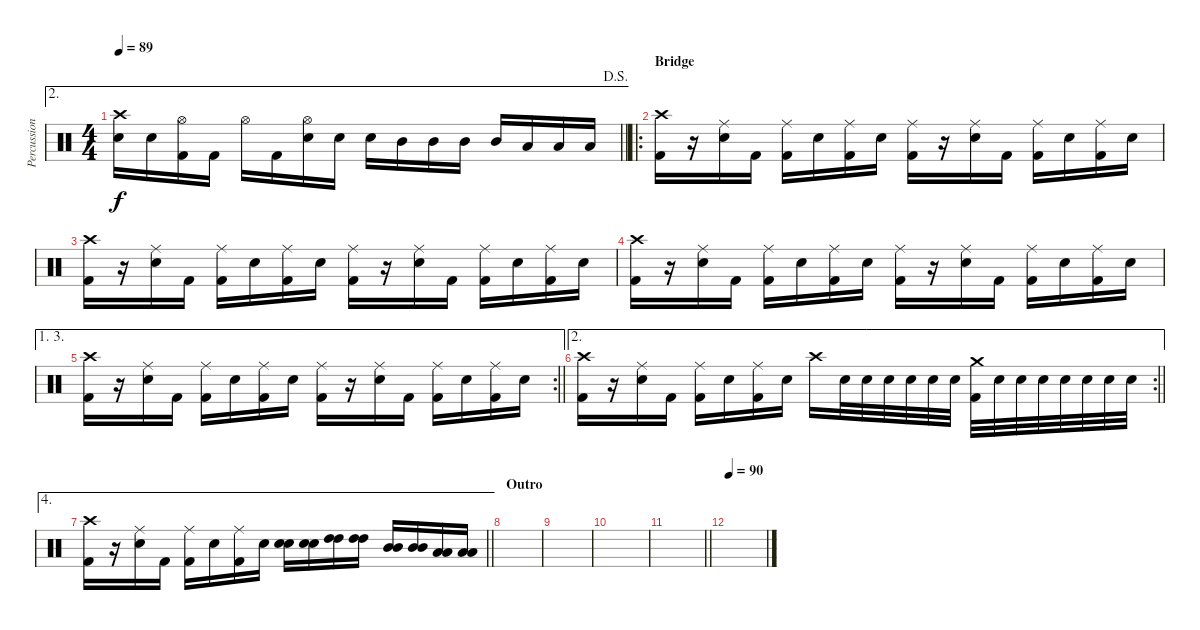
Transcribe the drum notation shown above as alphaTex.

\track ("Percussion" "Percussion") {instrument percussion}
\staff {score}
\articulation defaults
\ae 2
\ts (4 4)
\jump dalsegno
\tempo 89
\clef neutral
\barLineRight lightlight
\ks c
("Crash high (hit)" "Electric Snare (hit)").16{dy f} "Electric Snare (hit)".16 ("Hi-Hat (open)" "Kick (hit) 2").16 "Kick (hit) 2".16 "Hi-Hat (open)".16 "Kick (hit) 2".16 ("Hi-Hat (open)" "Electric Snare (hit)").16 "Electric Snare (hit)".16 "Electric Snare (hit)".16 "Mid Tom (hit)".16 "Mid Tom (hit)".16 "Mid Tom (hit)".16 "Mid Tom (hit)".16 "Low Tom (hit)".16 "Low Tom (hit)".16 "Low Tom (hit)".16 |
\ro
\section ("" "Bridge")
("Crash high (hit)" "Kick (hit) 2").16 r.16 ("Ride (middle)" "Electric Snare (hit)").16 "Kick (hit) 2".16 ("Ride (middle)" "Kick (hit) 2").16 "Electric Snare (hit)".16 ("Ride (middle)" "Kick (hit) 2").16 "Electric Snare (hit)".16 ("Ride (middle)" "Kick (hit) 2").16 r.16 ("Ride (middle)" "Electric Snare (hit)").16 "Kick (hit) 2".16 ("Ride (middle)" "Kick (hit) 2").16 "Electric Snare (hit)".16 ("Ride (middle)" "Kick (hit) 2").16 "Electric Snare (hit)".16 |
("Crash high (hit)" "Kick (hit) 2").16 r.16 ("Ride (middle)" "Electric Snare (hit)").16 "Kick (hit) 2".16 ("Ride (middle)" "Kick (hit) 2").16 "Electric Snare (hit)".16 ("Ride (middle)" "Kick (hit) 2").16 "Electric Snare (hit)".16 ("Ride (middle)" "Kick (hit) 2").16 r.16 ("Ride (middle)" "Electric Snare (hit)").16 "Kick (hit) 2".16 ("Ride (middle)" "Kick (hit) 2").16 "Electric Snare (hit)".16 ("Ride (middle)" "Kick (hit) 2").16 "Electric Snare (hit)".16 |
("Crash high (hit)" "Kick (hit) 2").16 r.16 ("Ride (middle)" "Electric Snare (hit)").16 "Kick (hit) 2".16 ("Ride (middle)" "Kick (hit) 2").16 "Electric Snare (hit)".16 ("Ride (middle)" "Kick (hit) 2").16 "Electric Snare (hit)".16 ("Ride (middle)" "Kick (hit) 2").16 r.16 ("Ride (middle)" "Electric Snare (hit)").16 "Kick (hit) 2".16 ("Ride (middle)" "Kick (hit) 2").16 "Electric Snare (hit)".16 ("Ride (middle)" "Kick (hit) 2").16 "Electric Snare (hit)".16 |
\ae (1 3)
\rc 2
\barLineRight lightlight
("Crash high (hit)" "Kick (hit) 2").16 r.16 ("Ride (middle)" "Electric Snare (hit)").16 "Kick (hit) 2".16 ("Ride (middle)" "Kick (hit) 2").16 "Electric Snare (hit)".16 ("Ride (middle)" "Kick (hit) 2").16 "Electric Snare (hit)".16 ("Ride (middle)" "Kick (hit) 2").16 r.16 ("Ride (middle)" "Electric Snare (hit)").16 "Kick (hit) 2".16 ("Ride (middle)" "Kick (hit) 2").16 "Electric Snare (hit)".16 ("Ride (middle)" "Kick (hit) 2").16 "Electric Snare (hit)".16 |
\ae 2
\rc 2
\barLineRight lightlight
("Crash high (hit)" "Kick (hit) 2").16 r.16 ("Ride (middle)" "Electric Snare (hit)").16 "Kick (hit) 2".16 ("Ride (middle)" "Kick (hit) 2").16 "Electric Snare (hit)".16 ("Ride (middle)" "Kick (hit) 2").16 "Electric Snare (hit)".16 "Crash high (hit)".16 "Electric Snare (hit)".32 "Electric Snare (hit)".32 "Electric Snare (hit)".32 "Electric Snare (hit)".32 "Electric Snare (hit)".32 "Electric Snare (hit)".32 ("Crash medium (hit)" "Kick (hit) 2").32 "Electric Snare (hit)".32 "Electric Snare (hit)".32 "Electric Snare (hit)".32 "Electric Snare (hit)".32 "Electric Snare (hit)".32 "Electric Snare (hit)".32 "Electric Snare (hit)".32 |
\ae 4
\barLineRight lightlight
("Crash high (hit)" "Kick (hit) 2").16 r.16 ("Ride (middle)" "Electric Snare (hit)").16 "Kick (hit) 2".16 ("Ride (middle)" "Kick (hit) 2").16 "Electric Snare (hit)".16 ("Ride (middle)" "Kick (hit) 2").16 "Electric Snare (hit)".16 ("Electric Snare (hit)" "Electric Snare (hit)").16 ("Electric Snare (hit)" "Electric Snare (hit)").16 ("High Tom (hit)" "High Tom (hit)").16 ("High Tom (hit)" "High Tom (hit)").16 ("Mid Tom (hit)" "Mid Tom (hit)").16 ("Mid Tom (hit)" "Mid Tom (hit)").16 ("Low Tom (hit)" "Low Tom (hit)").16 ("Low Tom (hit)" "Low Tom (hit)").16 |
\section ("" "Outro")
|
|
|
\barLineRight lightlight
|
\tempo 90
